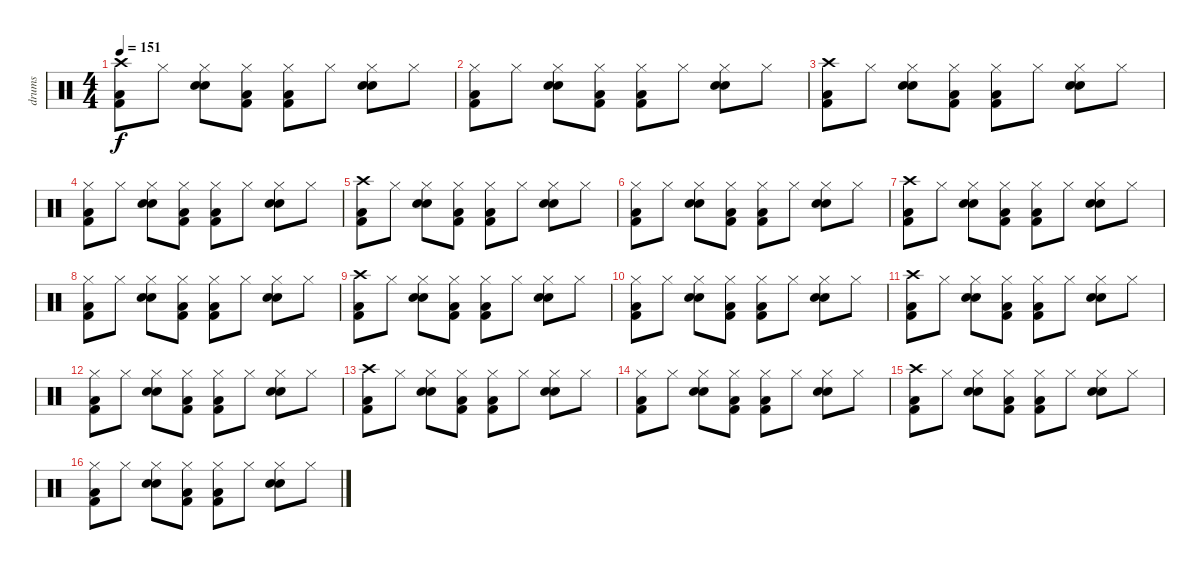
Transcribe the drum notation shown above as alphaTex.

\track ("drums" "drums") {instrument percussion}
\staff {score}
\articulation defaults
\ts (4 4)
\tempo 151
\clef neutral
\ks c
("Crash high (hit)" "Low Floor Tom (hit)" "Kick (hit) 2").8{dy f} "Hi-Hat (closed)".8 ("Hi-Hat (closed)" "Snare (hit) 2" "Snare (hit) 2").8 ("Hi-Hat (closed)" "Low Floor Tom (hit)" "Kick (hit) 2").8 ("Hi-Hat (closed)" "Low Floor Tom (hit)" "Kick (hit) 2").8 "Hi-Hat (closed)".8 ("Hi-Hat (closed)" "Snare (hit) 2" "Snare (hit) 2").8 "Hi-Hat (closed)".8 |
("Hi-Hat (closed)" "Low Floor Tom (hit)" "Kick (hit) 2").8 "Hi-Hat (closed)".8 ("Hi-Hat (closed)" "Snare (hit) 2" "Snare (hit) 2").8 ("Hi-Hat (closed)" "Low Floor Tom (hit)" "Kick (hit) 2").8 ("Hi-Hat (closed)" "Low Floor Tom (hit)" "Kick (hit) 2").8 "Hi-Hat (closed)".8 ("Hi-Hat (closed)" "Snare (hit) 2" "Snare (hit) 2").8 "Hi-Hat (closed)".8 |
("Crash high (hit)" "Low Floor Tom (hit)" "Kick (hit) 2").8 "Hi-Hat (closed)".8 ("Hi-Hat (closed)" "Snare (hit) 2" "Snare (hit) 2").8 ("Hi-Hat (closed)" "Low Floor Tom (hit)" "Kick (hit) 2").8 ("Hi-Hat (closed)" "Low Floor Tom (hit)" "Kick (hit) 2").8 "Hi-Hat (closed)".8 ("Hi-Hat (closed)" "Snare (hit) 2" "Snare (hit) 2").8 "Hi-Hat (closed)".8 |
("Hi-Hat (closed)" "Low Floor Tom (hit)" "Kick (hit) 2").8 "Hi-Hat (closed)".8 ("Hi-Hat (closed)" "Snare (hit) 2" "Snare (hit) 2").8 ("Hi-Hat (closed)" "Low Floor Tom (hit)" "Kick (hit) 2").8 ("Hi-Hat (closed)" "Low Floor Tom (hit)" "Kick (hit) 2").8 "Hi-Hat (closed)".8 ("Hi-Hat (closed)" "Snare (hit) 2" "Snare (hit) 2").8 "Hi-Hat (closed)".8 |
("Crash high (hit)" "Low Floor Tom (hit)" "Kick (hit) 2").8 "Hi-Hat (closed)".8 ("Hi-Hat (closed)" "Snare (hit) 2" "Snare (hit) 2").8 ("Hi-Hat (closed)" "Low Floor Tom (hit)" "Kick (hit) 2").8 ("Hi-Hat (closed)" "Low Floor Tom (hit)" "Kick (hit) 2").8 "Hi-Hat (closed)".8 ("Hi-Hat (closed)" "Snare (hit) 2" "Snare (hit) 2").8 "Hi-Hat (closed)".8 |
("Hi-Hat (closed)" "Low Floor Tom (hit)" "Kick (hit) 2").8 "Hi-Hat (closed)".8 ("Hi-Hat (closed)" "Snare (hit) 2" "Snare (hit) 2").8 ("Hi-Hat (closed)" "Low Floor Tom (hit)" "Kick (hit) 2").8 ("Hi-Hat (closed)" "Low Floor Tom (hit)" "Kick (hit) 2").8 "Hi-Hat (closed)".8 ("Hi-Hat (closed)" "Snare (hit) 2" "Snare (hit) 2").8 "Hi-Hat (closed)".8 |
("Crash high (hit)" "Low Floor Tom (hit)" "Kick (hit) 2").8 "Hi-Hat (closed)".8 ("Hi-Hat (closed)" "Snare (hit) 2" "Snare (hit) 2").8 ("Hi-Hat (closed)" "Low Floor Tom (hit)" "Kick (hit) 2").8 ("Hi-Hat (closed)" "Low Floor Tom (hit)" "Kick (hit) 2").8 "Hi-Hat (closed)".8 ("Hi-Hat (closed)" "Snare (hit) 2" "Snare (hit) 2").8 "Hi-Hat (closed)".8 |
("Hi-Hat (closed)" "Low Floor Tom (hit)" "Kick (hit) 2").8 "Hi-Hat (closed)".8 ("Hi-Hat (closed)" "Snare (hit) 2" "Snare (hit) 2").8 ("Hi-Hat (closed)" "Low Floor Tom (hit)" "Kick (hit) 2").8 ("Hi-Hat (closed)" "Low Floor Tom (hit)" "Kick (hit) 2").8 "Hi-Hat (closed)".8 ("Hi-Hat (closed)" "Snare (hit) 2" "Snare (hit) 2").8 "Hi-Hat (closed)".8 |
("Crash high (hit)" "Low Floor Tom (hit)" "Kick (hit) 2").8 "Hi-Hat (closed)".8 ("Hi-Hat (closed)" "Snare (hit) 2" "Snare (hit) 2").8 ("Hi-Hat (closed)" "Low Floor Tom (hit)" "Kick (hit) 2").8 ("Hi-Hat (closed)" "Low Floor Tom (hit)" "Kick (hit) 2").8 "Hi-Hat (closed)".8 ("Hi-Hat (closed)" "Snare (hit) 2" "Snare (hit) 2").8 "Hi-Hat (closed)".8 |
("Hi-Hat (closed)" "Low Floor Tom (hit)" "Kick (hit) 2").8 "Hi-Hat (closed)".8 ("Hi-Hat (closed)" "Snare (hit) 2" "Snare (hit) 2").8 ("Hi-Hat (closed)" "Low Floor Tom (hit)" "Kick (hit) 2").8 ("Hi-Hat (closed)" "Low Floor Tom (hit)" "Kick (hit) 2").8 "Hi-Hat (closed)".8 ("Hi-Hat (closed)" "Snare (hit) 2" "Snare (hit) 2").8 "Hi-Hat (closed)".8 |
("Crash high (hit)" "Low Floor Tom (hit)" "Kick (hit) 2").8 "Hi-Hat (closed)".8 ("Hi-Hat (closed)" "Snare (hit) 2" "Snare (hit) 2").8 ("Hi-Hat (closed)" "Low Floor Tom (hit)" "Kick (hit) 2").8 ("Hi-Hat (closed)" "Low Floor Tom (hit)" "Kick (hit) 2").8 "Hi-Hat (closed)".8 ("Hi-Hat (closed)" "Snare (hit) 2" "Snare (hit) 2").8 "Hi-Hat (closed)".8 |
("Hi-Hat (closed)" "Low Floor Tom (hit)" "Kick (hit) 2").8 "Hi-Hat (closed)".8 ("Hi-Hat (closed)" "Snare (hit) 2" "Snare (hit) 2").8 ("Hi-Hat (closed)" "Low Floor Tom (hit)" "Kick (hit) 2").8 ("Hi-Hat (closed)" "Low Floor Tom (hit)" "Kick (hit) 2").8 "Hi-Hat (closed)".8 ("Hi-Hat (closed)" "Snare (hit) 2" "Snare (hit) 2").8 "Hi-Hat (closed)".8 |
("Crash high (hit)" "Low Floor Tom (hit)" "Kick (hit) 2").8 "Hi-Hat (closed)".8 ("Hi-Hat (closed)" "Snare (hit) 2" "Snare (hit) 2").8 ("Hi-Hat (closed)" "Low Floor Tom (hit)" "Kick (hit) 2").8 ("Hi-Hat (closed)" "Low Floor Tom (hit)" "Kick (hit) 2").8 "Hi-Hat (closed)".8 ("Hi-Hat (closed)" "Snare (hit) 2" "Snare (hit) 2").8 "Hi-Hat (closed)".8 |
("Hi-Hat (closed)" "Low Floor Tom (hit)" "Kick (hit) 2").8 "Hi-Hat (closed)".8 ("Hi-Hat (closed)" "Snare (hit) 2" "Snare (hit) 2").8 ("Hi-Hat (closed)" "Low Floor Tom (hit)" "Kick (hit) 2").8 ("Hi-Hat (closed)" "Low Floor Tom (hit)" "Kick (hit) 2").8 "Hi-Hat (closed)".8 ("Hi-Hat (closed)" "Snare (hit) 2" "Snare (hit) 2").8 "Hi-Hat (closed)".8 |
("Crash high (hit)" "Low Floor Tom (hit)" "Kick (hit) 2").8 "Hi-Hat (closed)".8 ("Hi-Hat (closed)" "Snare (hit) 2" "Snare (hit) 2").8 ("Hi-Hat (closed)" "Low Floor Tom (hit)" "Kick (hit) 2").8 ("Hi-Hat (closed)" "Low Floor Tom (hit)" "Kick (hit) 2").8 "Hi-Hat (closed)".8 ("Hi-Hat (closed)" "Snare (hit) 2" "Snare (hit) 2").8 "Hi-Hat (closed)".8 |
("Hi-Hat (closed)" "Low Floor Tom (hit)" "Kick (hit) 2").8 "Hi-Hat (closed)".8 ("Hi-Hat (closed)" "Snare (hit) 2" "Snare (hit) 2").8 ("Hi-Hat (closed)" "Low Floor Tom (hit)" "Kick (hit) 2").8 ("Hi-Hat (closed)" "Low Floor Tom (hit)" "Kick (hit) 2").8 "Hi-Hat (closed)".8 ("Hi-Hat (closed)" "Snare (hit) 2" "Snare (hit) 2").8 "Hi-Hat (closed)".8
